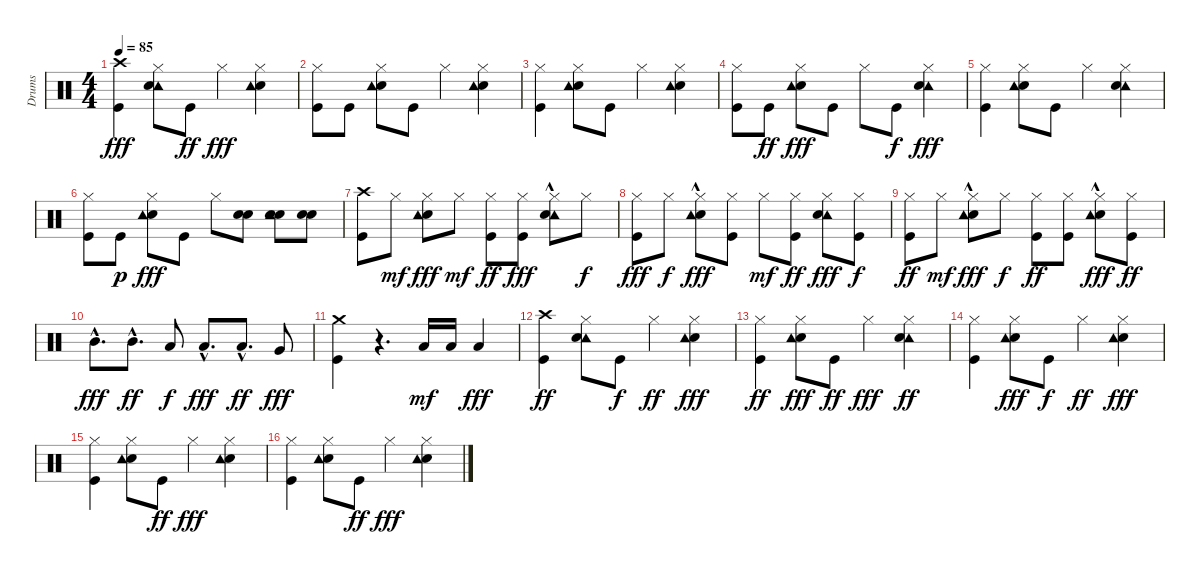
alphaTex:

\track ("Drums" "Drums") {instrument percussion}
\staff {score}
\articulation defaults
\ts (4 4)
\tempo 85
\clef neutral
\ks c
("Kick (hit)" "Crash high (hit)").4{dy fff} ("Tambourine (hit)" "Snare (hit) 2" "Hi-Hat (closed)").8 "Kick (hit)".8{dy ff} "Hi-Hat (closed)".4{dy fff} ("Hi-Hat (closed)" "Snare (hit) 2" "Tambourine (hit)").4 |
("Hi-Hat (closed)" "Kick (hit)").8 "Kick (hit)".8 ("Hi-Hat (closed)" "Snare (hit) 2" "Tambourine (hit)").8 "Kick (hit)".8 "Hi-Hat (closed)".4 ("Snare (hit) 2" "Hi-Hat (closed)" "Tambourine (hit)").4 |
("Kick (hit)" "Hi-Hat (closed)").4 ("Hi-Hat (closed)" "Snare (hit) 2" "Tambourine (hit)").8 "Kick (hit)".8 "Hi-Hat (closed)".4 ("Snare (hit) 2" "Hi-Hat (closed)" "Tambourine (hit)").4 |
("Hi-Hat (closed)" "Kick (hit)").8 "Kick (hit)".8{dy ff} ("Snare (hit) 2" "Hi-Hat (closed)" "Tambourine (hit)").8{dy fff} "Kick (hit)".8 "Hi-Hat (closed)".8 "Kick (hit)".8{dy f} ("Hi-Hat (closed)" "Tambourine (hit)" "Snare (hit) 2").4{dy fff} |
("Hi-Hat (closed)" "Kick (hit)").4 ("Snare (hit) 2" "Hi-Hat (closed)" "Tambourine (hit)").8 "Kick (hit)".8 "Hi-Hat (closed)".4 ("Tambourine (hit)" "Snare (hit) 2" "Hi-Hat (closed)").4 |
("Kick (hit)" "Hi-Hat (closed)").8 "Kick (hit)".8{dy p} ("Hi-Hat (closed)" "Snare (hit) 2" "Tambourine (hit)").8{dy fff} "Kick (hit)".8 "Hi-Hat (closed)".8 ("Snare (hit) 2" "Snare (hit) 2").8 ("Snare (hit) 2" "Tambourine (hit)" "Snare (hit) 2").8 ("Snare (hit) 2" "Snare (hit) 2").8 |
("Crash high (hit)" "Kick (hit)").8 "Hi-Hat (closed)".8{dy mf} ("Snare (hit) 2" "Hi-Hat (closed)" "Tambourine (hit)").8{dy fff} "Hi-Hat (closed)".8{dy mf} ("Hi-Hat (closed)" "Kick (hit)").8{dy ff} ("Kick (hit)" "Hi-Hat (closed)").8{dy fff} ("Hi-Hat (closed)" "Tambourine (hit)"{hac} "Snare (hit) 2").8 "Hi-Hat (closed)".8{dy f} |
("Hi-Hat (closed)" "Kick (hit)").8{dy fff} "Hi-Hat (closed)".8{dy f} ("Hi-Hat (closed)" "Snare (hit) 2" "Tambourine (hit)"{hac}).8{dy fff} ("Kick (hit)" "Hi-Hat (closed)").8 "Hi-Hat (closed)".8{dy mf} ("Hi-Hat (closed)" "Kick (hit)").8{dy ff} ("Tambourine (hit)" "Hi-Hat (closed)" "Snare (hit) 2").8{dy fff} ("Hi-Hat (closed)" "Kick (hit)").8{dy f} |
("Hi-Hat (closed)" "Kick (hit)").8{dy ff} "Hi-Hat (closed)".8{dy mf} ("Snare (hit) 2" "Hi-Hat (closed)" "Tambourine (hit)"{hac}).8{dy fff} "Hi-Hat (closed)".8{dy f} ("Hi-Hat (closed)" "Kick (hit)").8{dy ff} ("Hi-Hat (closed)" "Kick (hit)").8 ("Hi-Hat (closed)" "Snare (hit) 2" "Tambourine (hit)"{hac}).8{dy fff} ("Hi-Hat (closed)" "Kick (hit)").8{dy ff} |
"Mid Tom (hit)"{hac}.8{d dy fff} "Mid Tom (hit)"{hac}.8{d dy ff} "Low Tom (hit)".8{dy f} "Low Tom (hit)"{hac}.8{d dy fff} "Low Tom (hit)"{hac}.8{d dy ff} "Very Low Tom (hit)".8{dy fff} |
("Kick (hit)" "Crash medium (hit)").4 r.4{d} "Low Tom (hit)".16{dy mf} "Low Tom (hit)".16 "Low Tom (hit)".4{dy fff} |
("Crash high (hit)" "Kick (hit)").4{dy ff} ("Tambourine (hit)" "Hi-Hat (closed)" "Snare (hit) 2").8 "Kick (hit)".8{dy f} "Hi-Hat (closed)".4{dy ff} ("Snare (hit) 2" "Hi-Hat (closed)" "Tambourine (hit)").4{dy fff} |
("Hi-Hat (closed)" "Kick (hit)").4{dy ff} ("Snare (hit) 2" "Tambourine (hit)" "Hi-Hat (closed)").8{dy fff} "Kick (hit)".8{dy ff} "Hi-Hat (closed)".4{dy fff} ("Tambourine (hit)" "Hi-Hat (closed)" "Snare (hit) 2").4{dy ff} |
("Hi-Hat (closed)" "Kick (hit)").4 ("Snare (hit) 2" "Tambourine (hit)" "Hi-Hat (closed)").8{dy fff} "Kick (hit)".8{dy f} "Hi-Hat (closed)".4{dy ff} ("Hi-Hat (closed)" "Snare (hit) 2" "Tambourine (hit)").4{dy fff} |
("Kick (hit)" "Hi-Hat (closed)").4 ("Snare (hit) 2" "Hi-Hat (closed)" "Tambourine (hit)").8 "Kick (hit)".8{dy ff} "Hi-Hat (closed)".4{dy fff} ("Hi-Hat (closed)" "Snare (hit) 2" "Tambourine (hit)").4 |
("Kick (hit)" "Hi-Hat (closed)").4 ("Snare (hit) 2" "Hi-Hat (closed)" "Tambourine (hit)").8 "Kick (hit)".8{dy ff} "Hi-Hat (closed)".4{dy fff} ("Hi-Hat (closed)" "Snare (hit) 2" "Tambourine (hit)").4
